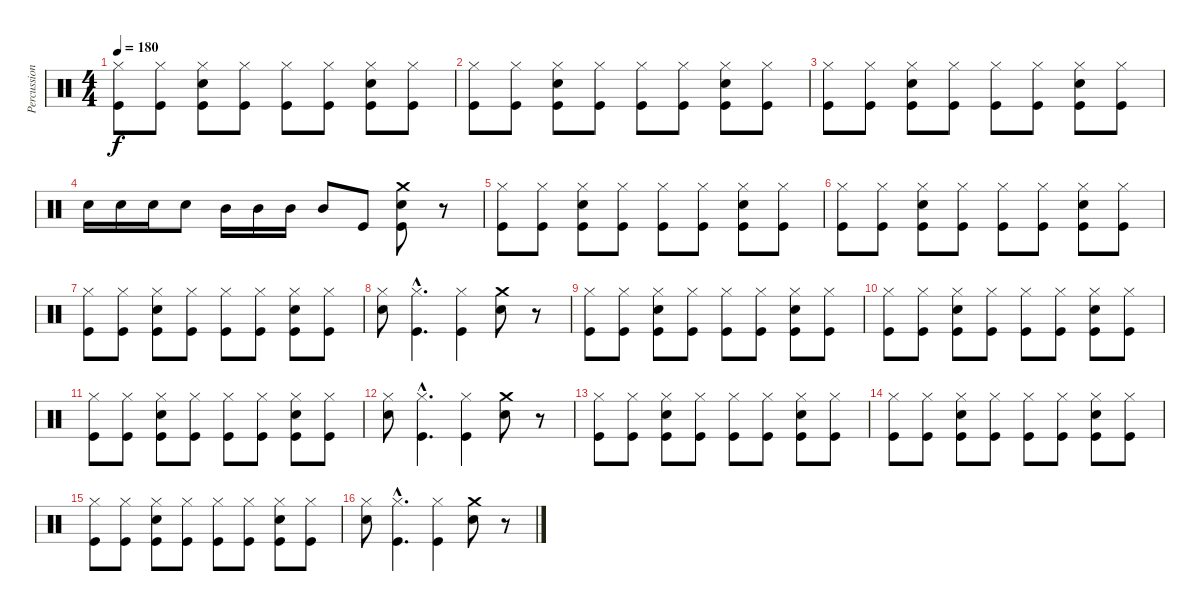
\track ("Percussion" "Percussion") {instrument percussion}
\staff {score}
\articulation defaults
\ts (4 4)
\tempo 180
\clef neutral
\ks c
("Hi-Hat (closed)" "Kick (hit)").8{dy f} ("Hi-Hat (closed)" "Kick (hit)").8 ("Hi-Hat (closed)" "Snare (hit) 2" "Kick (hit)").8 ("Hi-Hat (closed)" "Kick (hit)").8 ("Hi-Hat (closed)" "Kick (hit)").8 ("Hi-Hat (closed)" "Kick (hit)").8 ("Hi-Hat (closed)" "Snare (hit) 2" "Kick (hit)").8 ("Hi-Hat (closed)" "Kick (hit)").8 |
("Hi-Hat (closed)" "Kick (hit)").8 ("Hi-Hat (closed)" "Kick (hit)").8 ("Hi-Hat (closed)" "Snare (hit) 2" "Kick (hit)").8 ("Hi-Hat (closed)" "Kick (hit)").8 ("Hi-Hat (closed)" "Kick (hit)").8 ("Hi-Hat (closed)" "Kick (hit)").8 ("Hi-Hat (closed)" "Snare (hit) 2" "Kick (hit)").8 ("Hi-Hat (closed)" "Kick (hit)").8 |
("Hi-Hat (closed)" "Kick (hit)").8 ("Hi-Hat (closed)" "Kick (hit)").8 ("Hi-Hat (closed)" "Snare (hit) 2" "Kick (hit)").8 ("Hi-Hat (closed)" "Kick (hit)").8 ("Hi-Hat (closed)" "Kick (hit)").8 ("Hi-Hat (closed)" "Kick (hit)").8 ("Hi-Hat (closed)" "Snare (hit) 2" "Kick (hit)").8 ("Hi-Hat (closed)" "Kick (hit)").8 |
"Snare (hit) 2".16 "Snare (hit) 2".16 "Snare (hit) 2".16 "Snare (hit) 2".8 "Mid Tom (hit)".16 "Mid Tom (hit)".16 "Mid Tom (hit)".16 "Mid Tom (hit)".8 "Kick (hit)".8 ("Crash medium (hit)" "Snare (hit) 2" "Kick (hit)").8 r.8 |
("Hi-Hat (closed)" "Kick (hit)").8 ("Hi-Hat (closed)" "Kick (hit)").8 ("Hi-Hat (closed)" "Snare (hit) 2" "Kick (hit)").8 ("Hi-Hat (closed)" "Kick (hit)").8 ("Hi-Hat (closed)" "Kick (hit)").8 ("Hi-Hat (closed)" "Kick (hit)").8 ("Hi-Hat (closed)" "Snare (hit) 2" "Kick (hit)").8 ("Hi-Hat (closed)" "Kick (hit)").8 |
("Hi-Hat (closed)" "Kick (hit)").8 ("Hi-Hat (closed)" "Kick (hit)").8 ("Hi-Hat (closed)" "Snare (hit) 2" "Kick (hit)").8 ("Hi-Hat (closed)" "Kick (hit)").8 ("Hi-Hat (closed)" "Kick (hit)").8 ("Hi-Hat (closed)" "Kick (hit)").8 ("Hi-Hat (closed)" "Snare (hit) 2" "Kick (hit)").8 ("Hi-Hat (closed)" "Kick (hit)").8 |
("Hi-Hat (closed)" "Kick (hit)").8 ("Hi-Hat (closed)" "Kick (hit)").8 ("Hi-Hat (closed)" "Snare (hit) 2" "Kick (hit)").8 ("Hi-Hat (closed)" "Kick (hit)").8 ("Hi-Hat (closed)" "Kick (hit)").8 ("Hi-Hat (closed)" "Kick (hit)").8 ("Hi-Hat (closed)" "Snare (hit) 2" "Kick (hit)").8 ("Hi-Hat (closed)" "Kick (hit)").8 |
("Hi-Hat (closed)" "Snare (hit) 2").8 ("Hi-Hat (closed)"{hac} "Kick (hit)"{hac}).4{d} ("Hi-Hat (closed)" "Kick (hit)").4 ("Crash medium (hit)" "Snare (hit) 2").8 r.8 |
("Hi-Hat (closed)" "Kick (hit)").8 ("Hi-Hat (closed)" "Kick (hit)").8 ("Hi-Hat (closed)" "Snare (hit) 2" "Kick (hit)").8 ("Hi-Hat (closed)" "Kick (hit)").8 ("Hi-Hat (closed)" "Kick (hit)").8 ("Hi-Hat (closed)" "Kick (hit)").8 ("Hi-Hat (closed)" "Snare (hit) 2" "Kick (hit)").8 ("Hi-Hat (closed)" "Kick (hit)").8 |
("Hi-Hat (closed)" "Kick (hit)").8 ("Hi-Hat (closed)" "Kick (hit)").8 ("Hi-Hat (closed)" "Snare (hit) 2" "Kick (hit)").8 ("Hi-Hat (closed)" "Kick (hit)").8 ("Hi-Hat (closed)" "Kick (hit)").8 ("Hi-Hat (closed)" "Kick (hit)").8 ("Hi-Hat (closed)" "Snare (hit) 2" "Kick (hit)").8 ("Hi-Hat (closed)" "Kick (hit)").8 |
("Hi-Hat (closed)" "Kick (hit)").8 ("Hi-Hat (closed)" "Kick (hit)").8 ("Hi-Hat (closed)" "Snare (hit) 2" "Kick (hit)").8 ("Hi-Hat (closed)" "Kick (hit)").8 ("Hi-Hat (closed)" "Kick (hit)").8 ("Hi-Hat (closed)" "Kick (hit)").8 ("Hi-Hat (closed)" "Snare (hit) 2" "Kick (hit)").8 ("Hi-Hat (closed)" "Kick (hit)").8 |
("Hi-Hat (closed)" "Snare (hit) 2").8 ("Hi-Hat (closed)"{hac} "Kick (hit)"{hac}).4{d} ("Hi-Hat (closed)" "Kick (hit)").4 ("Crash medium (hit)" "Snare (hit) 2").8 r.8 |
("Hi-Hat (closed)" "Kick (hit)").8 ("Hi-Hat (closed)" "Kick (hit)").8 ("Hi-Hat (closed)" "Snare (hit) 2" "Kick (hit)").8 ("Hi-Hat (closed)" "Kick (hit)").8 ("Hi-Hat (closed)" "Kick (hit)").8 ("Hi-Hat (closed)" "Kick (hit)").8 ("Hi-Hat (closed)" "Snare (hit) 2" "Kick (hit)").8 ("Hi-Hat (closed)" "Kick (hit)").8 |
("Hi-Hat (closed)" "Kick (hit)").8 ("Hi-Hat (closed)" "Kick (hit)").8 ("Hi-Hat (closed)" "Snare (hit) 2" "Kick (hit)").8 ("Hi-Hat (closed)" "Kick (hit)").8 ("Hi-Hat (closed)" "Kick (hit)").8 ("Hi-Hat (closed)" "Kick (hit)").8 ("Hi-Hat (closed)" "Snare (hit) 2" "Kick (hit)").8 ("Hi-Hat (closed)" "Kick (hit)").8 |
("Hi-Hat (closed)" "Kick (hit)").8 ("Hi-Hat (closed)" "Kick (hit)").8 ("Hi-Hat (closed)" "Snare (hit) 2" "Kick (hit)").8 ("Hi-Hat (closed)" "Kick (hit)").8 ("Hi-Hat (closed)" "Kick (hit)").8 ("Hi-Hat (closed)" "Kick (hit)").8 ("Hi-Hat (closed)" "Snare (hit) 2" "Kick (hit)").8 ("Hi-Hat (closed)" "Kick (hit)").8 |
("Hi-Hat (closed)" "Snare (hit) 2").8 ("Hi-Hat (closed)"{hac} "Kick (hit)"{hac}).4{d} ("Hi-Hat (closed)" "Kick (hit)").4 ("Crash medium (hit)" "Snare (hit) 2").8 r.8
